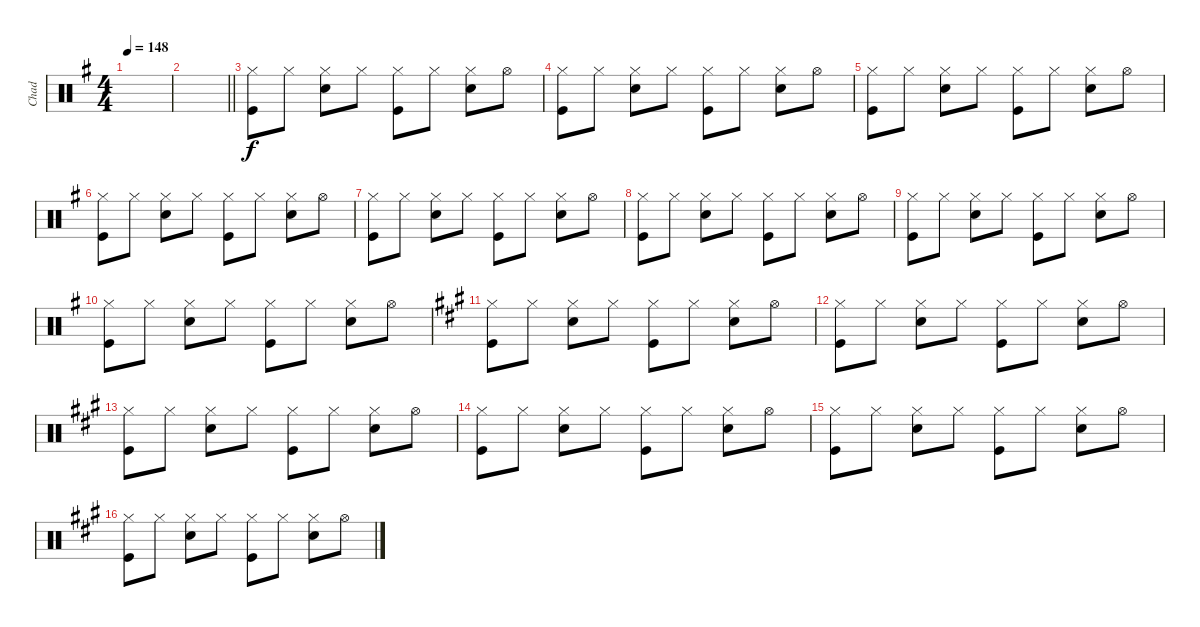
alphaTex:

\track ("Chad" "Chad") {instrument percussion}
\staff {score}
\articulation defaults
\ts (4 4)
\tempo 148
\clef neutral
\ks g
|
\barLineRight lightlight
|
("Hi-Hat (closed)" "Kick (hit)").8 "Hi-Hat (closed)".8 ("Hi-Hat (closed)" "Snare (hit) 2").8 "Hi-Hat (closed)".8 ("Hi-Hat (closed)" "Kick (hit)").8 "Hi-Hat (closed)".8 ("Hi-Hat (closed)" "Snare (hit) 2").8 "Hi-Hat (open)".8 |
("Hi-Hat (closed)" "Kick (hit)").8 "Hi-Hat (closed)".8 ("Hi-Hat (closed)" "Snare (hit) 2").8 "Hi-Hat (closed)".8 ("Hi-Hat (closed)" "Kick (hit)").8 "Hi-Hat (closed)".8 ("Hi-Hat (closed)" "Snare (hit) 2").8 "Hi-Hat (open)".8 |
("Hi-Hat (closed)" "Kick (hit)").8 "Hi-Hat (closed)".8 ("Hi-Hat (closed)" "Snare (hit) 2").8 "Hi-Hat (closed)".8 ("Hi-Hat (closed)" "Kick (hit)").8 "Hi-Hat (closed)".8 ("Hi-Hat (closed)" "Snare (hit) 2").8 "Hi-Hat (open)".8 |
("Hi-Hat (closed)" "Kick (hit)").8 "Hi-Hat (closed)".8 ("Hi-Hat (closed)" "Snare (hit) 2").8 "Hi-Hat (closed)".8 ("Hi-Hat (closed)" "Kick (hit)").8 "Hi-Hat (closed)".8 ("Hi-Hat (closed)" "Snare (hit) 2").8 "Hi-Hat (open)".8 |
("Hi-Hat (closed)" "Kick (hit)").8 "Hi-Hat (closed)".8 ("Hi-Hat (closed)" "Snare (hit) 2").8 "Hi-Hat (closed)".8 ("Hi-Hat (closed)" "Kick (hit)").8 "Hi-Hat (closed)".8 ("Hi-Hat (closed)" "Snare (hit) 2").8 "Hi-Hat (open)".8 |
("Hi-Hat (closed)" "Kick (hit)").8 "Hi-Hat (closed)".8 ("Hi-Hat (closed)" "Snare (hit) 2").8 "Hi-Hat (closed)".8 ("Hi-Hat (closed)" "Kick (hit)").8 "Hi-Hat (closed)".8 ("Hi-Hat (closed)" "Snare (hit) 2").8 "Hi-Hat (open)".8 |
("Hi-Hat (closed)" "Kick (hit)").8 "Hi-Hat (closed)".8 ("Hi-Hat (closed)" "Snare (hit) 2").8 "Hi-Hat (closed)".8 ("Hi-Hat (closed)" "Kick (hit)").8 "Hi-Hat (closed)".8 ("Hi-Hat (closed)" "Snare (hit) 2").8 "Hi-Hat (open)".8 |
("Hi-Hat (closed)" "Kick (hit)").8 "Hi-Hat (closed)".8 ("Hi-Hat (closed)" "Snare (hit) 2").8 "Hi-Hat (closed)".8 ("Hi-Hat (closed)" "Kick (hit)").8 "Hi-Hat (closed)".8 ("Hi-Hat (closed)" "Snare (hit) 2").8 "Hi-Hat (open)".8 |
\ks a
("Hi-Hat (closed)" "Kick (hit)").8 "Hi-Hat (closed)".8 ("Hi-Hat (closed)" "Snare (hit) 2").8 "Hi-Hat (closed)".8 ("Hi-Hat (closed)" "Kick (hit)").8 "Hi-Hat (closed)".8 ("Hi-Hat (closed)" "Snare (hit) 2").8 "Hi-Hat (open)".8 |
("Hi-Hat (closed)" "Kick (hit)").8 "Hi-Hat (closed)".8 ("Hi-Hat (closed)" "Snare (hit) 2").8 "Hi-Hat (closed)".8 ("Hi-Hat (closed)" "Kick (hit)").8 "Hi-Hat (closed)".8 ("Hi-Hat (closed)" "Snare (hit) 2").8 "Hi-Hat (open)".8 |
("Hi-Hat (closed)" "Kick (hit)").8 "Hi-Hat (closed)".8 ("Hi-Hat (closed)" "Snare (hit) 2").8 "Hi-Hat (closed)".8 ("Hi-Hat (closed)" "Kick (hit)").8 "Hi-Hat (closed)".8 ("Hi-Hat (closed)" "Snare (hit) 2").8 "Hi-Hat (open)".8 |
("Hi-Hat (closed)" "Kick (hit)").8 "Hi-Hat (closed)".8 ("Hi-Hat (closed)" "Snare (hit) 2").8 "Hi-Hat (closed)".8 ("Hi-Hat (closed)" "Kick (hit)").8 "Hi-Hat (closed)".8 ("Hi-Hat (closed)" "Snare (hit) 2").8 "Hi-Hat (open)".8 |
("Hi-Hat (closed)" "Kick (hit)").8 "Hi-Hat (closed)".8 ("Hi-Hat (closed)" "Snare (hit) 2").8 "Hi-Hat (closed)".8 ("Hi-Hat (closed)" "Kick (hit)").8 "Hi-Hat (closed)".8 ("Hi-Hat (closed)" "Snare (hit) 2").8 "Hi-Hat (open)".8 |
("Hi-Hat (closed)" "Kick (hit)").8 "Hi-Hat (closed)".8 ("Hi-Hat (closed)" "Snare (hit) 2").8 "Hi-Hat (closed)".8 ("Hi-Hat (closed)" "Kick (hit)").8 "Hi-Hat (closed)".8 ("Hi-Hat (closed)" "Snare (hit) 2").8 "Hi-Hat (open)".8
